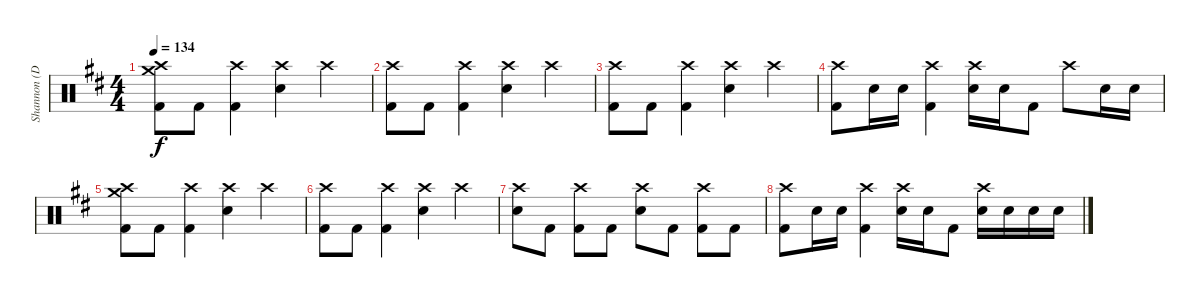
\track ("Shannon (Drums)" "Shannon (D") {instrument percussion}
\staff {score}
\articulation defaults
\ts (4 4)
\tempo 134
\clef neutral
\ks d
("Crash high (hit)" "Crash medium (hit)" "Kick (hit) 2").8{dy f} "Kick (hit) 2".8 ("Crash high (hit)" "Kick (hit) 2").4 ("Crash high (hit)" "Electric Snare (hit)").4 "Crash high (hit)".4 |
("Crash high (hit)" "Kick (hit) 2").8 "Kick (hit) 2".8 ("Crash high (hit)" "Kick (hit) 2").4 ("Crash high (hit)" "Electric Snare (hit)").4 "Crash high (hit)".4 |
("Crash high (hit)" "Kick (hit) 2").8 "Kick (hit) 2".8 ("Crash high (hit)" "Kick (hit) 2").4 ("Crash high (hit)" "Electric Snare (hit)").4 "Crash high (hit)".4 |
("Crash high (hit)" "Kick (hit) 2").8 "Electric Snare (hit)".16 "Electric Snare (hit)".16 ("Crash high (hit)" "Kick (hit) 2").4 ("Crash high (hit)" "Electric Snare (hit)").16 "Electric Snare (hit)".16 "Kick (hit) 2".8 "Crash high (hit)".8 "Electric Snare (hit)".16 "Electric Snare (hit)".16 |
("Crash high (hit)" "Crash medium (hit)" "Kick (hit) 2").8 "Kick (hit) 2".8 ("Crash high (hit)" "Kick (hit) 2").4 ("Crash high (hit)" "Electric Snare (hit)").4 "Crash high (hit)".4 |
("Crash high (hit)" "Kick (hit) 2").8 "Kick (hit) 2".8 ("Crash high (hit)" "Kick (hit) 2").4 ("Crash high (hit)" "Electric Snare (hit)").4 "Crash high (hit)".4 |
("Crash high (hit)" "Electric Snare (hit)").8 "Kick (hit) 2".8 ("Crash high (hit)" "Kick (hit) 2").8 "Kick (hit) 2".8 ("Crash high (hit)" "Electric Snare (hit)").8 "Kick (hit) 2".8 ("Crash high (hit)" "Kick (hit) 2").8 "Kick (hit) 2".8 |
("Crash high (hit)" "Kick (hit) 2").8 "Electric Snare (hit)".16 "Electric Snare (hit)".16 ("Crash high (hit)" "Kick (hit) 2").4 ("Crash high (hit)" "Electric Snare (hit)").16 "Electric Snare (hit)".16 "Kick (hit) 2".8 ("Crash high (hit)" "Electric Snare (hit)").16 "Electric Snare (hit)".16 "Electric Snare (hit)".16 "Electric Snare (hit)".16
